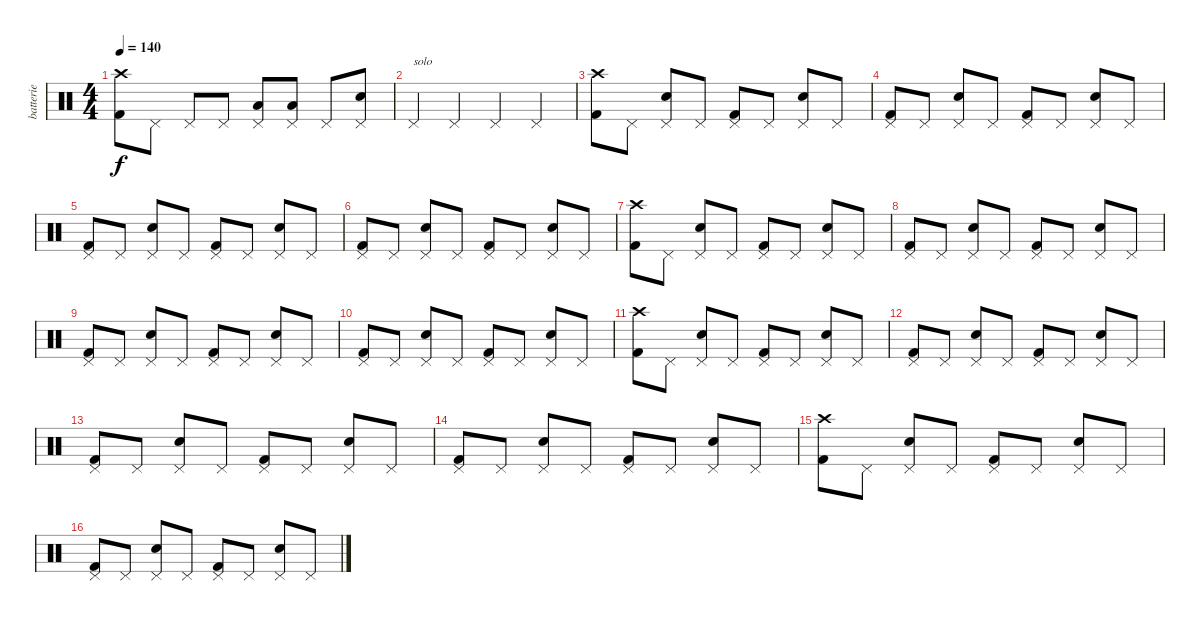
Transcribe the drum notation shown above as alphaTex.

\track ("batterie" "batterie") {instrument percussion}
\staff {score}
\articulation defaults
\ts (4 4)
\tempo 140
\clef neutral
\ks c
("Crash high (hit)" "Kick (hit) 2").8{dy f} "Pedal Hi-Hat (hit)".8 "Pedal Hi-Hat (hit)".8 "Pedal Hi-Hat (hit)".8 ("Low Tom (hit)" "Pedal Hi-Hat (hit)").8 ("Low Tom (hit)" "Pedal Hi-Hat (hit)").8 "Pedal Hi-Hat (hit)".8 ("Snare (hit) 2" "Pedal Hi-Hat (hit)").8 |
"Pedal Hi-Hat (hit)".4{txt "solo"} "Pedal Hi-Hat (hit)".4 "Pedal Hi-Hat (hit)".4 "Pedal Hi-Hat (hit)".4 |
("Crash high (hit)" "Kick (hit) 2").8 "Pedal Hi-Hat (hit)".8 ("Snare (hit) 2" "Pedal Hi-Hat (hit)").8 "Pedal Hi-Hat (hit)".8 ("Kick (hit) 2" "Pedal Hi-Hat (hit)").8 "Pedal Hi-Hat (hit)".8 ("Snare (hit) 2" "Pedal Hi-Hat (hit)").8 "Pedal Hi-Hat (hit)".8 |
("Kick (hit) 2" "Pedal Hi-Hat (hit)").8 "Pedal Hi-Hat (hit)".8 ("Snare (hit) 2" "Pedal Hi-Hat (hit)").8 "Pedal Hi-Hat (hit)".8 ("Kick (hit) 2" "Pedal Hi-Hat (hit)").8 "Pedal Hi-Hat (hit)".8 ("Snare (hit) 2" "Pedal Hi-Hat (hit)").8 "Pedal Hi-Hat (hit)".8 |
("Kick (hit) 2" "Pedal Hi-Hat (hit)").8 "Pedal Hi-Hat (hit)".8 ("Snare (hit) 2" "Pedal Hi-Hat (hit)").8 "Pedal Hi-Hat (hit)".8 ("Kick (hit) 2" "Pedal Hi-Hat (hit)").8 "Pedal Hi-Hat (hit)".8 ("Snare (hit) 2" "Pedal Hi-Hat (hit)").8 "Pedal Hi-Hat (hit)".8 |
("Kick (hit) 2" "Pedal Hi-Hat (hit)").8 "Pedal Hi-Hat (hit)".8 ("Snare (hit) 2" "Pedal Hi-Hat (hit)").8 "Pedal Hi-Hat (hit)".8 ("Kick (hit) 2" "Pedal Hi-Hat (hit)").8 "Pedal Hi-Hat (hit)".8 ("Snare (hit) 2" "Pedal Hi-Hat (hit)").8 "Pedal Hi-Hat (hit)".8 |
("Crash high (hit)" "Kick (hit) 2").8 "Pedal Hi-Hat (hit)".8 ("Snare (hit) 2" "Pedal Hi-Hat (hit)").8 "Pedal Hi-Hat (hit)".8 ("Kick (hit) 2" "Pedal Hi-Hat (hit)").8 "Pedal Hi-Hat (hit)".8 ("Snare (hit) 2" "Pedal Hi-Hat (hit)").8 "Pedal Hi-Hat (hit)".8 |
("Kick (hit) 2" "Pedal Hi-Hat (hit)").8 "Pedal Hi-Hat (hit)".8 ("Snare (hit) 2" "Pedal Hi-Hat (hit)").8 "Pedal Hi-Hat (hit)".8 ("Kick (hit) 2" "Pedal Hi-Hat (hit)").8 "Pedal Hi-Hat (hit)".8 ("Snare (hit) 2" "Pedal Hi-Hat (hit)").8 "Pedal Hi-Hat (hit)".8 |
("Kick (hit) 2" "Pedal Hi-Hat (hit)").8 "Pedal Hi-Hat (hit)".8 ("Snare (hit) 2" "Pedal Hi-Hat (hit)").8 "Pedal Hi-Hat (hit)".8 ("Kick (hit) 2" "Pedal Hi-Hat (hit)").8 "Pedal Hi-Hat (hit)".8 ("Snare (hit) 2" "Pedal Hi-Hat (hit)").8 "Pedal Hi-Hat (hit)".8 |
("Kick (hit) 2" "Pedal Hi-Hat (hit)").8 "Pedal Hi-Hat (hit)".8 ("Snare (hit) 2" "Pedal Hi-Hat (hit)").8 "Pedal Hi-Hat (hit)".8 ("Kick (hit) 2" "Pedal Hi-Hat (hit)").8 "Pedal Hi-Hat (hit)".8 ("Snare (hit) 2" "Pedal Hi-Hat (hit)").8 "Pedal Hi-Hat (hit)".8 |
("Crash high (hit)" "Kick (hit) 2").8 "Pedal Hi-Hat (hit)".8 ("Snare (hit) 2" "Pedal Hi-Hat (hit)").8 "Pedal Hi-Hat (hit)".8 ("Kick (hit) 2" "Pedal Hi-Hat (hit)").8 "Pedal Hi-Hat (hit)".8 ("Snare (hit) 2" "Pedal Hi-Hat (hit)").8 "Pedal Hi-Hat (hit)".8 |
("Kick (hit) 2" "Pedal Hi-Hat (hit)").8 "Pedal Hi-Hat (hit)".8 ("Snare (hit) 2" "Pedal Hi-Hat (hit)").8 "Pedal Hi-Hat (hit)".8 ("Kick (hit) 2" "Pedal Hi-Hat (hit)").8 "Pedal Hi-Hat (hit)".8 ("Snare (hit) 2" "Pedal Hi-Hat (hit)").8 "Pedal Hi-Hat (hit)".8 |
("Kick (hit) 2" "Pedal Hi-Hat (hit)").8 "Pedal Hi-Hat (hit)".8 ("Snare (hit) 2" "Pedal Hi-Hat (hit)").8 "Pedal Hi-Hat (hit)".8 ("Kick (hit) 2" "Pedal Hi-Hat (hit)").8 "Pedal Hi-Hat (hit)".8 ("Snare (hit) 2" "Pedal Hi-Hat (hit)").8 "Pedal Hi-Hat (hit)".8 |
("Kick (hit) 2" "Pedal Hi-Hat (hit)").8 "Pedal Hi-Hat (hit)".8 ("Snare (hit) 2" "Pedal Hi-Hat (hit)").8 "Pedal Hi-Hat (hit)".8 ("Kick (hit) 2" "Pedal Hi-Hat (hit)").8 "Pedal Hi-Hat (hit)".8 ("Snare (hit) 2" "Pedal Hi-Hat (hit)").8 "Pedal Hi-Hat (hit)".8 |
("Crash high (hit)" "Kick (hit) 2").8 "Pedal Hi-Hat (hit)".8 ("Snare (hit) 2" "Pedal Hi-Hat (hit)").8 "Pedal Hi-Hat (hit)".8 ("Kick (hit) 2" "Pedal Hi-Hat (hit)").8 "Pedal Hi-Hat (hit)".8 ("Snare (hit) 2" "Pedal Hi-Hat (hit)").8 "Pedal Hi-Hat (hit)".8 |
("Kick (hit) 2" "Pedal Hi-Hat (hit)").8 "Pedal Hi-Hat (hit)".8 ("Snare (hit) 2" "Pedal Hi-Hat (hit)").8 "Pedal Hi-Hat (hit)".8 ("Kick (hit) 2" "Pedal Hi-Hat (hit)").8 "Pedal Hi-Hat (hit)".8 ("Snare (hit) 2" "Pedal Hi-Hat (hit)").8 "Pedal Hi-Hat (hit)".8
